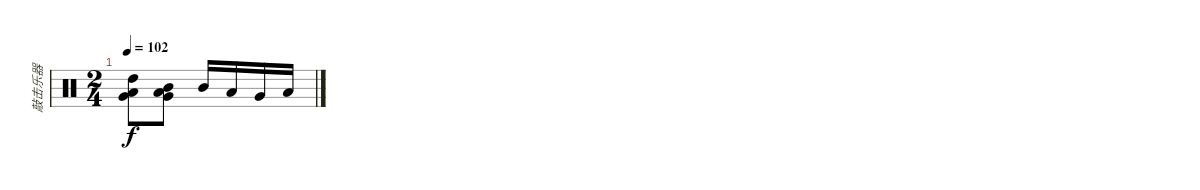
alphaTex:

\track ("敲击乐器" "敲击乐器") {instrument percussion}
\staff {score}
\articulation defaults
\ts (2 4)
\tempo 102
\clef neutral
\ks c
("High Tom (hit)" "Low Tom (hit)" "Very Low Tom (hit)").8{dy f} ("Very Low Tom (hit)" "Mid Tom (hit)" "Low Tom (hit)").8 "Mid Tom (hit)".16 "Low Tom (hit)".16 "Very Low Tom (hit)".16 "Low Tom (hit)".16
